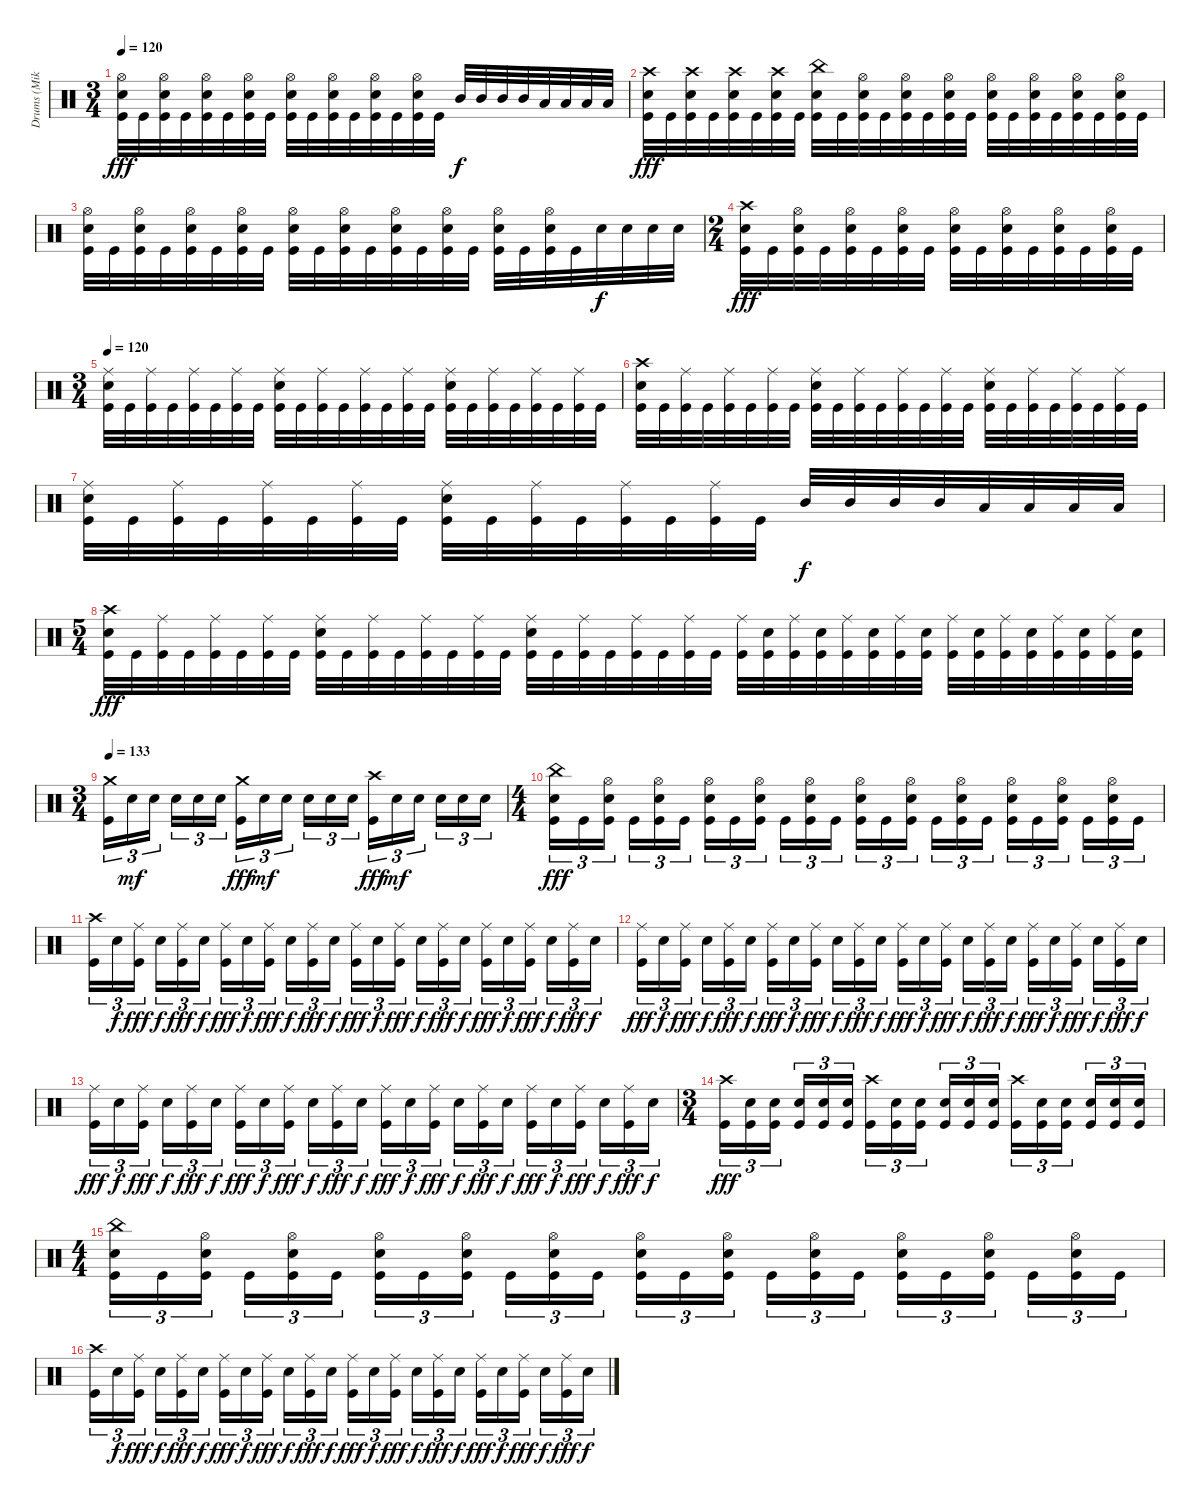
\track ("Drums (Mike)" "Drums (Mik") {instrument percussion}
\staff {score}
\articulation defaults
\ts (3 4)
\tempo 120
\clef neutral
\ks c
("Hi-Hat (open)" "Electric Snare (hit)" "Kick (hit)").32{dy fff} "Kick (hit)".32 ("Hi-Hat (open)" "Electric Snare (hit)" "Kick (hit)").32 "Kick (hit)".32 ("Hi-Hat (open)" "Electric Snare (hit)" "Kick (hit)").32 "Kick (hit)".32 ("Hi-Hat (open)" "Electric Snare (hit)" "Kick (hit)").32 "Kick (hit)".32 ("Hi-Hat (open)" "Electric Snare (hit)" "Kick (hit)").32 "Kick (hit)".32 ("Hi-Hat (open)" "Electric Snare (hit)" "Kick (hit)").32 "Kick (hit)".32 ("Hi-Hat (open)" "Electric Snare (hit)" "Kick (hit)").32 "Kick (hit)".32 ("Hi-Hat (open)" "Electric Snare (hit)" "Kick (hit)").32 "Kick (hit)".32 "Mid Tom (hit)".32{dy f} "Mid Tom (hit)".32 "Mid Tom (hit)".32 "Mid Tom (hit)".32 "Low Tom (hit)".32 "Low Tom (hit)".32 "Low Tom (hit)".32 "Low Tom (hit)".32 |
("Crash high (hit)" "Electric Snare (hit)" "Kick (hit)").32{dy fff} "Kick (hit)".32 ("Crash high (hit)" "Electric Snare (hit)" "Kick (hit)").32 "Kick (hit)".32 ("Crash high (hit)" "Electric Snare (hit)" "Kick (hit)").32 "Kick (hit)".32 ("Crash high (hit)" "Electric Snare (hit)" "Kick (hit)").32 "Kick (hit)".32 ("China (hit)" "Electric Snare (hit)" "Kick (hit)").32 "Kick (hit)".32 ("Hi-Hat (open)" "Electric Snare (hit)" "Kick (hit)").32 "Kick (hit)".32 ("Hi-Hat (open)" "Electric Snare (hit)" "Kick (hit)").32 "Kick (hit)".32 ("Hi-Hat (open)" "Electric Snare (hit)" "Kick (hit)").32 "Kick (hit)".32 ("Hi-Hat (open)" "Electric Snare (hit)" "Kick (hit)").32 "Kick (hit)".32 ("Hi-Hat (open)" "Electric Snare (hit)" "Kick (hit)").32 "Kick (hit)".32 ("Hi-Hat (open)" "Electric Snare (hit)" "Kick (hit)").32 "Kick (hit)".32 ("Hi-Hat (open)" "Electric Snare (hit)" "Kick (hit)").32 "Kick (hit)".32 |
("Hi-Hat (open)" "Electric Snare (hit)" "Kick (hit)").32 "Kick (hit)".32 ("Hi-Hat (open)" "Electric Snare (hit)" "Kick (hit)").32 "Kick (hit)".32 ("Hi-Hat (open)" "Electric Snare (hit)" "Kick (hit)").32 "Kick (hit)".32 ("Hi-Hat (open)" "Electric Snare (hit)" "Kick (hit)").32 "Kick (hit)".32 ("Hi-Hat (open)" "Electric Snare (hit)" "Kick (hit)").32 "Kick (hit)".32 ("Hi-Hat (open)" "Electric Snare (hit)" "Kick (hit)").32 "Kick (hit)".32 ("Hi-Hat (open)" "Electric Snare (hit)" "Kick (hit)").32 "Kick (hit)".32 ("Hi-Hat (open)" "Electric Snare (hit)" "Kick (hit)").32 "Kick (hit)".32 ("Hi-Hat (open)" "Electric Snare (hit)" "Kick (hit)").32 "Kick (hit)".32 ("Hi-Hat (open)" "Electric Snare (hit)" "Kick (hit)").32 "Kick (hit)".32 "Electric Snare (hit)".32{dy f} "Electric Snare (hit)".32 "Electric Snare (hit)".32 "Electric Snare (hit)".32 |
\ts (2 4)
("Crash high (hit)" "Electric Snare (hit)" "Kick (hit)").32{dy fff} "Kick (hit)".32 ("Hi-Hat (open)" "Electric Snare (hit)" "Kick (hit)").32 "Kick (hit)".32 ("Hi-Hat (open)" "Electric Snare (hit)" "Kick (hit)").32 "Kick (hit)".32 ("Hi-Hat (open)" "Electric Snare (hit)" "Kick (hit)").32 "Kick (hit)".32 ("Hi-Hat (open)" "Electric Snare (hit)" "Kick (hit)").32 "Kick (hit)".32 ("Hi-Hat (open)" "Electric Snare (hit)" "Kick (hit)").32 "Kick (hit)".32 ("Hi-Hat (open)" "Electric Snare (hit)" "Kick (hit)").32 "Kick (hit)".32 ("Hi-Hat (open)" "Electric Snare (hit)" "Kick (hit)").32 "Kick (hit)".32 |
\ts (3 4)
\tempo 120
("Ride (middle)" "Electric Snare (hit)" "Kick (hit)").32 "Kick (hit)".32 ("Ride (middle)" "Kick (hit)").32 "Kick (hit)".32 ("Ride (middle)" "Kick (hit)").32 "Kick (hit)".32 ("Ride (middle)" "Kick (hit)").32 "Kick (hit)".32 ("Ride (middle)" "Electric Snare (hit)" "Kick (hit)").32 "Kick (hit)".32 ("Ride (middle)" "Kick (hit)").32 "Kick (hit)".32 ("Ride (middle)" "Kick (hit)").32 "Kick (hit)".32 ("Ride (middle)" "Kick (hit)").32 "Kick (hit)".32 ("Ride (middle)" "Electric Snare (hit)" "Kick (hit)").32 "Kick (hit)".32 ("Ride (middle)" "Kick (hit)").32 "Kick (hit)".32 ("Ride (middle)" "Kick (hit)").32 "Kick (hit)".32 ("Ride (middle)" "Kick (hit)").32 "Kick (hit)".32 |
("Crash high (hit)" "Electric Snare (hit)" "Kick (hit)").32 "Kick (hit)".32 ("Ride (middle)" "Kick (hit)").32 "Kick (hit)".32 ("Ride (middle)" "Kick (hit)").32 "Kick (hit)".32 ("Ride (middle)" "Kick (hit)").32 "Kick (hit)".32 ("Ride (middle)" "Electric Snare (hit)" "Kick (hit)").32 "Kick (hit)".32 ("Ride (middle)" "Kick (hit)").32 "Kick (hit)".32 ("Ride (middle)" "Kick (hit)").32 "Kick (hit)".32 ("Ride (middle)" "Kick (hit)").32 "Kick (hit)".32 ("Ride (middle)" "Electric Snare (hit)" "Kick (hit)").32 "Kick (hit)".32 ("Ride (middle)" "Kick (hit)").32 "Kick (hit)".32 ("Ride (middle)" "Kick (hit)").32 "Kick (hit)".32 ("Ride (middle)" "Kick (hit)").32 "Kick (hit)".32 |
("Ride (middle)" "Electric Snare (hit)" "Kick (hit)").32 "Kick (hit)".32 ("Ride (middle)" "Kick (hit)").32 "Kick (hit)".32 ("Ride (middle)" "Kick (hit)").32 "Kick (hit)".32 ("Ride (middle)" "Kick (hit)").32 "Kick (hit)".32 ("Ride (middle)" "Electric Snare (hit)" "Kick (hit)").32 "Kick (hit)".32 ("Ride (middle)" "Kick (hit)").32 "Kick (hit)".32 ("Ride (middle)" "Kick (hit)").32 "Kick (hit)".32 ("Ride (middle)" "Kick (hit)").32 "Kick (hit)".32 "Mid Tom (hit)".32{dy f} "Mid Tom (hit)".32 "Mid Tom (hit)".32 "Mid Tom (hit)".32 "Low Tom (hit)".32 "Low Tom (hit)".32 "Low Tom (hit)".32 "Low Tom (hit)".32 |
\ts (5 4)
("Crash high (hit)" "Electric Snare (hit)" "Kick (hit)").32{dy fff} "Kick (hit)".32 ("Ride (middle)" "Kick (hit)").32 "Kick (hit)".32 ("Ride (middle)" "Kick (hit)").32 "Kick (hit)".32 ("Ride (middle)" "Kick (hit)").32 "Kick (hit)".32 ("Ride (middle)" "Electric Snare (hit)" "Kick (hit)").32 "Kick (hit)".32 ("Ride (middle)" "Kick (hit)").32 "Kick (hit)".32 ("Ride (middle)" "Kick (hit)").32 "Kick (hit)".32 ("Ride (middle)" "Kick (hit)").32 "Kick (hit)".32 ("Ride (middle)" "Electric Snare (hit)" "Kick (hit)").32 "Kick (hit)".32 ("Ride (middle)" "Kick (hit)").32 "Kick (hit)".32 ("Ride (middle)" "Kick (hit)").32 "Kick (hit)".32 ("Ride (middle)" "Kick (hit)").32 "Kick (hit)".32 ("Ride (middle)" "Kick (hit)").32 ("Electric Snare (hit)" "Kick (hit)").32 ("Ride (middle)" "Kick (hit)").32 ("Electric Snare (hit)" "Kick (hit)").32 ("Ride (middle)" "Kick (hit)").32 ("Electric Snare (hit)" "Kick (hit)").32 ("Ride (middle)" "Kick (hit)").32 ("Electric Snare (hit)" "Kick (hit)").32 ("Ride (middle)" "Kick (hit)").32 ("Electric Snare (hit)" "Kick (hit)").32 ("Ride (middle)" "Kick (hit)").32 ("Electric Snare (hit)" "Kick (hit)").32 ("Ride (middle)" "Kick (hit)").32 ("Electric Snare (hit)" "Kick (hit)").32 ("Ride (middle)" "Kick (hit)").32 ("Electric Snare (hit)" "Kick (hit)").32 |
\ts (3 4)
\tempo 133
("Crash medium (hit)" "Kick (hit)").16{tu (3 2)} "Electric Snare (hit)".16{tu (3 2) dy mf} "Electric Snare (hit)".16{tu (3 2)} "Electric Snare (hit)".16{tu (3 2)} "Electric Snare (hit)".16{tu (3 2)} "Electric Snare (hit)".16{tu (3 2)} ("Crash medium (hit)" "Kick (hit)").16{tu (3 2) dy fff} "Electric Snare (hit)".16{tu (3 2) dy mf} "Electric Snare (hit)".16{tu (3 2)} "Electric Snare (hit)".16{tu (3 2)} "Electric Snare (hit)".16{tu (3 2)} "Electric Snare (hit)".16{tu (3 2)} ("Crash high (hit)" "Kick (hit)").16{tu (3 2) dy fff} "Electric Snare (hit)".16{tu (3 2) dy mf} "Electric Snare (hit)".16{tu (3 2)} "Electric Snare (hit)".16{tu (3 2)} "Electric Snare (hit)".16{tu (3 2)} "Electric Snare (hit)".16{tu (3 2)} |
\ts (4 4)
("China (hit)" "Electric Snare (hit)" "Kick (hit)").16{tu (3 2) dy fff} "Kick (hit)".16{tu (3 2)} ("Hi-Hat (open)" "Electric Snare (hit)" "Kick (hit)").16{tu (3 2)} "Kick (hit)".16{tu (3 2)} ("Hi-Hat (open)" "Electric Snare (hit)" "Kick (hit)").16{tu (3 2)} "Kick (hit)".16{tu (3 2)} ("Hi-Hat (open)" "Electric Snare (hit)" "Kick (hit)").16{tu (3 2)} "Kick (hit)".16{tu (3 2)} ("Hi-Hat (open)" "Electric Snare (hit)" "Kick (hit)").16{tu (3 2)} "Kick (hit)".16{tu (3 2)} ("Hi-Hat (open)" "Electric Snare (hit)" "Kick (hit)").16{tu (3 2)} "Kick (hit)".16{tu (3 2)} ("Hi-Hat (open)" "Electric Snare (hit)" "Kick (hit)").16{tu (3 2)} "Kick (hit)".16{tu (3 2)} ("Hi-Hat (open)" "Electric Snare (hit)" "Kick (hit)").16{tu (3 2)} "Kick (hit)".16{tu (3 2)} ("Hi-Hat (open)" "Electric Snare (hit)" "Kick (hit)").16{tu (3 2)} "Kick (hit)".16{tu (3 2)} ("Hi-Hat (open)" "Electric Snare (hit)" "Kick (hit)").16{tu (3 2)} "Kick (hit)".16{tu (3 2)} ("Hi-Hat (open)" "Electric Snare (hit)" "Kick (hit)").16{tu (3 2)} "Kick (hit)".16{tu (3 2)} ("Hi-Hat (open)" "Electric Snare (hit)" "Kick (hit)").16{tu (3 2)} "Kick (hit)".16{tu (3 2)} |
("Crash high (hit)" "Kick (hit)").16{tu (3 2)} "Electric Snare (hit)".16{tu (3 2) dy f} ("Ride (middle)" "Kick (hit)").16{tu (3 2) dy fff} "Electric Snare (hit)".16{tu (3 2) dy f} ("Ride (middle)" "Kick (hit)").16{tu (3 2) dy fff} "Electric Snare (hit)".16{tu (3 2) dy f} ("Ride (middle)" "Kick (hit)").16{tu (3 2) dy fff} "Electric Snare (hit)".16{tu (3 2) dy f} ("Ride (middle)" "Kick (hit)").16{tu (3 2) dy fff} "Electric Snare (hit)".16{tu (3 2) dy f} ("Ride (middle)" "Kick (hit)").16{tu (3 2) dy fff} "Electric Snare (hit)".16{tu (3 2) dy f} ("Ride (middle)" "Kick (hit)").16{tu (3 2) dy fff} "Electric Snare (hit)".16{tu (3 2) dy f} ("Ride (middle)" "Kick (hit)").16{tu (3 2) dy fff} "Electric Snare (hit)".16{tu (3 2) dy f} ("Ride (middle)" "Kick (hit)").16{tu (3 2) dy fff} "Electric Snare (hit)".16{tu (3 2) dy f} ("Ride (middle)" "Kick (hit)").16{tu (3 2) dy fff} "Electric Snare (hit)".16{tu (3 2) dy f} ("Ride (middle)" "Kick (hit)").16{tu (3 2) dy fff} "Electric Snare (hit)".16{tu (3 2) dy f} ("Ride (middle)" "Kick (hit)").16{tu (3 2) dy fff} "Electric Snare (hit)".16{tu (3 2) dy f} |
("Ride (middle)" "Kick (hit)").16{tu (3 2) dy fff} "Electric Snare (hit)".16{tu (3 2) dy f} ("Ride (middle)" "Kick (hit)").16{tu (3 2) dy fff} "Electric Snare (hit)".16{tu (3 2) dy f} ("Ride (middle)" "Kick (hit)").16{tu (3 2) dy fff} "Electric Snare (hit)".16{tu (3 2) dy f} ("Ride (middle)" "Kick (hit)").16{tu (3 2) dy fff} "Electric Snare (hit)".16{tu (3 2) dy f} ("Ride (middle)" "Kick (hit)").16{tu (3 2) dy fff} "Electric Snare (hit)".16{tu (3 2) dy f} ("Ride (middle)" "Kick (hit)").16{tu (3 2) dy fff} "Electric Snare (hit)".16{tu (3 2) dy f} ("Ride (middle)" "Kick (hit)").16{tu (3 2) dy fff} "Electric Snare (hit)".16{tu (3 2) dy f} ("Ride (middle)" "Kick (hit)").16{tu (3 2) dy fff} "Electric Snare (hit)".16{tu (3 2) dy f} ("Ride (middle)" "Kick (hit)").16{tu (3 2) dy fff} "Electric Snare (hit)".16{tu (3 2) dy f} ("Ride (middle)" "Kick (hit)").16{tu (3 2) dy fff} "Electric Snare (hit)".16{tu (3 2) dy f} ("Ride (middle)" "Kick (hit)").16{tu (3 2) dy fff} "Electric Snare (hit)".16{tu (3 2) dy f} ("Ride (middle)" "Kick (hit)").16{tu (3 2) dy fff} "Electric Snare (hit)".16{tu (3 2) dy f} |
("Ride (middle)" "Kick (hit)").16{tu (3 2) dy fff} "Electric Snare (hit)".16{tu (3 2) dy f} ("Ride (middle)" "Kick (hit)").16{tu (3 2) dy fff} "Electric Snare (hit)".16{tu (3 2) dy f} ("Ride (middle)" "Kick (hit)").16{tu (3 2) dy fff} "Electric Snare (hit)".16{tu (3 2) dy f} ("Ride (middle)" "Kick (hit)").16{tu (3 2) dy fff} "Electric Snare (hit)".16{tu (3 2) dy f} ("Ride (middle)" "Kick (hit)").16{tu (3 2) dy fff} "Electric Snare (hit)".16{tu (3 2) dy f} ("Ride (middle)" "Kick (hit)").16{tu (3 2) dy fff} "Electric Snare (hit)".16{tu (3 2) dy f} ("Ride (middle)" "Kick (hit)").16{tu (3 2) dy fff} "Electric Snare (hit)".16{tu (3 2) dy f} ("Ride (middle)" "Kick (hit)").16{tu (3 2) dy fff} "Electric Snare (hit)".16{tu (3 2) dy f} ("Ride (middle)" "Kick (hit)").16{tu (3 2) dy fff} "Electric Snare (hit)".16{tu (3 2) dy f} ("Ride (middle)" "Kick (hit)").16{tu (3 2) dy fff} "Electric Snare (hit)".16{tu (3 2) dy f} ("Ride (middle)" "Kick (hit)").16{tu (3 2) dy fff} "Electric Snare (hit)".16{tu (3 2) dy f} ("Ride (middle)" "Kick (hit)").16{tu (3 2) dy fff} "Electric Snare (hit)".16{tu (3 2) dy f} |
\ts (3 4)
("Crash high (hit)" "Kick (hit)").16{tu (3 2) dy fff} ("Electric Snare (hit)" "Kick (hit)").16{tu (3 2)} ("Electric Snare (hit)" "Kick (hit)").16{tu (3 2)} ("Electric Snare (hit)" "Kick (hit)").16{tu (3 2)} ("Electric Snare (hit)" "Kick (hit)").16{tu (3 2)} ("Electric Snare (hit)" "Kick (hit)").16{tu (3 2)} ("Crash high (hit)" "Kick (hit)").16{tu (3 2)} ("Electric Snare (hit)" "Kick (hit)").16{tu (3 2)} ("Electric Snare (hit)" "Kick (hit)").16{tu (3 2)} ("Electric Snare (hit)" "Kick (hit)").16{tu (3 2)} ("Electric Snare (hit)" "Kick (hit)").16{tu (3 2)} ("Electric Snare (hit)" "Kick (hit)").16{tu (3 2)} ("Crash high (hit)" "Kick (hit)").16{tu (3 2)} ("Electric Snare (hit)" "Kick (hit)").16{tu (3 2)} ("Electric Snare (hit)" "Kick (hit)").16{tu (3 2)} ("Electric Snare (hit)" "Kick (hit)").16{tu (3 2)} ("Electric Snare (hit)" "Kick (hit)").16{tu (3 2)} ("Electric Snare (hit)" "Kick (hit)").16{tu (3 2)} |
\ts (4 4)
("China (hit)" "Electric Snare (hit)" "Kick (hit)").16{tu (3 2)} "Kick (hit)".16{tu (3 2)} ("Hi-Hat (open)" "Electric Snare (hit)" "Kick (hit)").16{tu (3 2)} "Kick (hit)".16{tu (3 2)} ("Hi-Hat (open)" "Electric Snare (hit)" "Kick (hit)").16{tu (3 2)} "Kick (hit)".16{tu (3 2)} ("Hi-Hat (open)" "Electric Snare (hit)" "Kick (hit)").16{tu (3 2)} "Kick (hit)".16{tu (3 2)} ("Hi-Hat (open)" "Electric Snare (hit)" "Kick (hit)").16{tu (3 2)} "Kick (hit)".16{tu (3 2)} ("Hi-Hat (open)" "Electric Snare (hit)" "Kick (hit)").16{tu (3 2)} "Kick (hit)".16{tu (3 2)} ("Hi-Hat (open)" "Electric Snare (hit)" "Kick (hit)").16{tu (3 2)} "Kick (hit)".16{tu (3 2)} ("Hi-Hat (open)" "Electric Snare (hit)" "Kick (hit)").16{tu (3 2)} "Kick (hit)".16{tu (3 2)} ("Hi-Hat (open)" "Electric Snare (hit)" "Kick (hit)").16{tu (3 2)} "Kick (hit)".16{tu (3 2)} ("Hi-Hat (open)" "Electric Snare (hit)" "Kick (hit)").16{tu (3 2)} "Kick (hit)".16{tu (3 2)} ("Hi-Hat (open)" "Electric Snare (hit)" "Kick (hit)").16{tu (3 2)} "Kick (hit)".16{tu (3 2)} ("Hi-Hat (open)" "Electric Snare (hit)" "Kick (hit)").16{tu (3 2)} "Kick (hit)".16{tu (3 2)} |
("Crash high (hit)" "Kick (hit)").16{tu (3 2)} "Electric Snare (hit)".16{tu (3 2) dy f} ("Ride (middle)" "Kick (hit)").16{tu (3 2) dy fff} "Electric Snare (hit)".16{tu (3 2) dy f} ("Ride (middle)" "Kick (hit)").16{tu (3 2) dy fff} "Electric Snare (hit)".16{tu (3 2) dy f} ("Ride (middle)" "Kick (hit)").16{tu (3 2) dy fff} "Electric Snare (hit)".16{tu (3 2) dy f} ("Ride (middle)" "Kick (hit)").16{tu (3 2) dy fff} "Electric Snare (hit)".16{tu (3 2) dy f} ("Ride (middle)" "Kick (hit)").16{tu (3 2) dy fff} "Electric Snare (hit)".16{tu (3 2) dy f} ("Ride (middle)" "Kick (hit)").16{tu (3 2) dy fff} "Electric Snare (hit)".16{tu (3 2) dy f} ("Ride (middle)" "Kick (hit)").16{tu (3 2) dy fff} "Electric Snare (hit)".16{tu (3 2) dy f} ("Ride (middle)" "Kick (hit)").16{tu (3 2) dy fff} "Electric Snare (hit)".16{tu (3 2) dy f} ("Ride (middle)" "Kick (hit)").16{tu (3 2) dy fff} "Electric Snare (hit)".16{tu (3 2) dy f} ("Ride (middle)" "Kick (hit)").16{tu (3 2) dy fff} "Electric Snare (hit)".16{tu (3 2) dy f} ("Ride (middle)" "Kick (hit)").16{tu (3 2) dy fff} "Electric Snare (hit)".16{tu (3 2) dy f}
